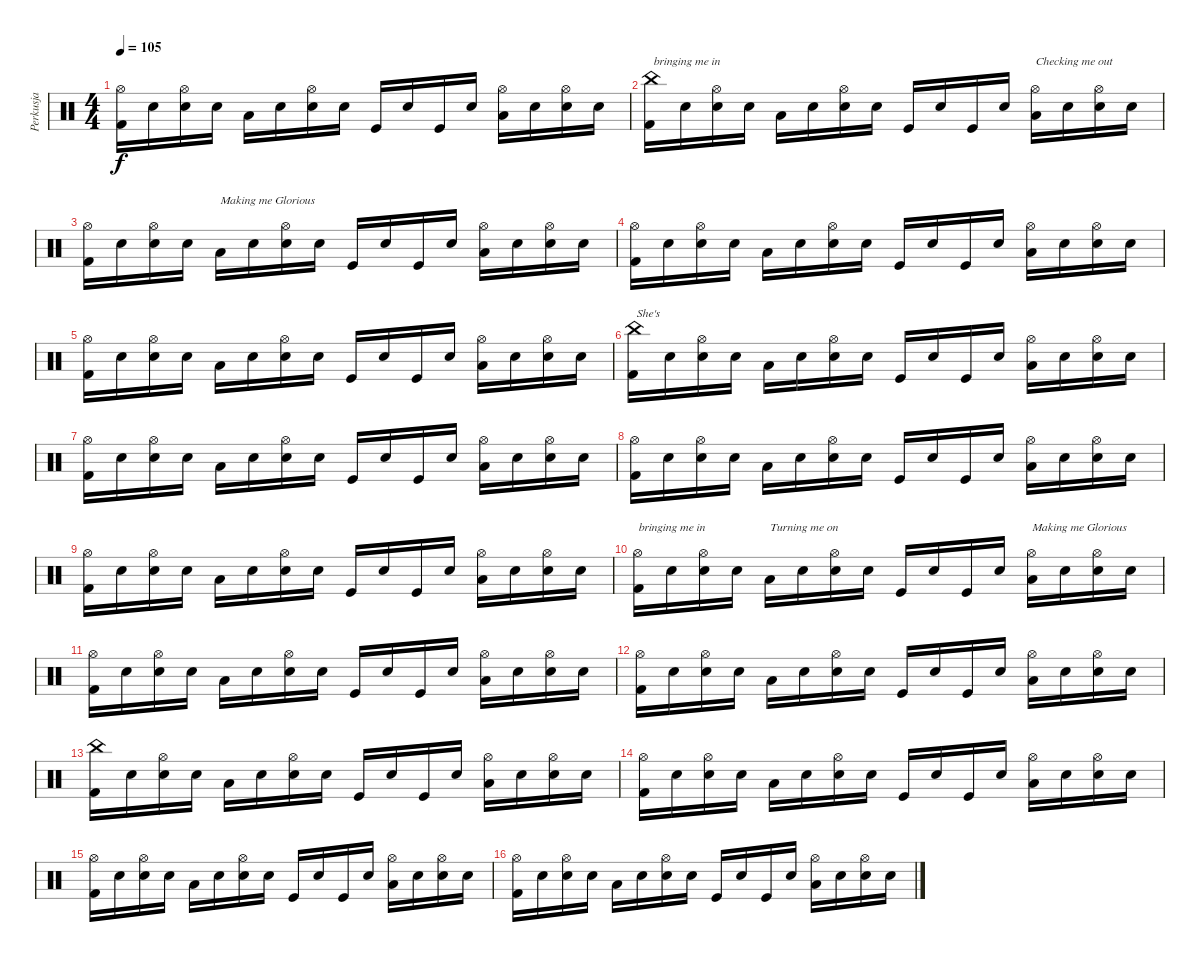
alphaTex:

\track ("Perkusja" "Perkusja") {instrument percussion}
\staff {score}
\articulation defaults
\ts (4 4)
\tempo 105
\clef neutral
\ks c
("Hi-Hat (open)" "Kick (hit) 2").16{dy f} "Snare (hit)".16 ("Hi-Hat (open)" "Snare (hit)").16 "Snare (hit)".16 "Low Tom (hit)".16 "Snare (hit)".16 ("Hi-Hat (open)" "Snare (hit)").16 "Snare (hit)".16 "Kick (hit)".16 "Snare (hit)".16 "Kick (hit)".16 "Snare (hit)".16 ("Hi-Hat (open)" "Low Tom (hit)").16 "Snare (hit)".16 ("Hi-Hat (open)" "Snare (hit)").16 "Snare (hit)".16 |
("China (hit)" "Kick (hit) 2").16{txt "bringing me in"} "Snare (hit)".16 ("Hi-Hat (open)" "Snare (hit)").16 "Snare (hit)".16 "Low Tom (hit)".16 "Snare (hit)".16 ("Hi-Hat (open)" "Snare (hit)").16 "Snare (hit)".16 "Kick (hit)".16 "Snare (hit)".16 "Kick (hit)".16 "Snare (hit)".16 ("Hi-Hat (open)" "Low Tom (hit)").16{txt "Checking me out "} "Snare (hit)".16 ("Hi-Hat (open)" "Snare (hit)").16 "Snare (hit)".16 |
("Hi-Hat (open)" "Kick (hit) 2").16 "Snare (hit)".16 ("Hi-Hat (open)" "Snare (hit)").16 "Snare (hit)".16 "Low Tom (hit)".16{txt "Making me Glorious "} "Snare (hit)".16 ("Hi-Hat (open)" "Snare (hit)").16 "Snare (hit)".16 "Kick (hit)".16 "Snare (hit)".16 "Kick (hit)".16 "Snare (hit)".16 ("Hi-Hat (open)" "Low Tom (hit)").16 "Snare (hit)".16 ("Hi-Hat (open)" "Snare (hit)").16 "Snare (hit)".16 |
("Hi-Hat (open)" "Kick (hit) 2").16 "Snare (hit)".16 ("Hi-Hat (open)" "Snare (hit)").16 "Snare (hit)".16 "Low Tom (hit)".16 "Snare (hit)".16 ("Hi-Hat (open)" "Snare (hit)").16 "Snare (hit)".16 "Kick (hit)".16 "Snare (hit)".16 "Kick (hit)".16 "Snare (hit)".16 ("Hi-Hat (open)" "Low Tom (hit)").16 "Snare (hit)".16 ("Hi-Hat (open)" "Snare (hit)").16 "Snare (hit)".16 |
("Hi-Hat (open)" "Kick (hit) 2").16 "Snare (hit)".16 ("Hi-Hat (open)" "Snare (hit)").16 "Snare (hit)".16 "Low Tom (hit)".16 "Snare (hit)".16 ("Hi-Hat (open)" "Snare (hit)").16 "Snare (hit)".16 "Kick (hit)".16 "Snare (hit)".16 "Kick (hit)".16 "Snare (hit)".16 ("Hi-Hat (open)" "Low Tom (hit)").16 "Snare (hit)".16 ("Hi-Hat (open)" "Snare (hit)").16 "Snare (hit)".16 |
("China (hit)" "Kick (hit) 2").16{txt "She's"} "Snare (hit)".16 ("Hi-Hat (open)" "Snare (hit)").16 "Snare (hit)".16 "Low Tom (hit)".16 "Snare (hit)".16 ("Hi-Hat (open)" "Snare (hit)").16 "Snare (hit)".16 "Kick (hit)".16 "Snare (hit)".16 "Kick (hit)".16 "Snare (hit)".16 ("Hi-Hat (open)" "Low Tom (hit)").16 "Snare (hit)".16 ("Hi-Hat (open)" "Snare (hit)").16 "Snare (hit)".16 |
("Hi-Hat (open)" "Kick (hit) 2").16 "Snare (hit)".16 ("Hi-Hat (open)" "Snare (hit)").16 "Snare (hit)".16 "Low Tom (hit)".16 "Snare (hit)".16 ("Hi-Hat (open)" "Snare (hit)").16 "Snare (hit)".16 "Kick (hit)".16 "Snare (hit)".16 "Kick (hit)".16 "Snare (hit)".16 ("Hi-Hat (open)" "Low Tom (hit)").16 "Snare (hit)".16 ("Hi-Hat (open)" "Snare (hit)").16 "Snare (hit)".16 |
("Hi-Hat (open)" "Kick (hit) 2").16 "Snare (hit)".16 ("Hi-Hat (open)" "Snare (hit)").16 "Snare (hit)".16 "Low Tom (hit)".16 "Snare (hit)".16 ("Hi-Hat (open)" "Snare (hit)").16 "Snare (hit)".16 "Kick (hit)".16 "Snare (hit)".16 "Kick (hit)".16 "Snare (hit)".16 ("Hi-Hat (open)" "Low Tom (hit)").16 "Snare (hit)".16 ("Hi-Hat (open)" "Snare (hit)").16 "Snare (hit)".16 |
("Hi-Hat (open)" "Kick (hit) 2").16 "Snare (hit)".16 ("Hi-Hat (open)" "Snare (hit)").16 "Snare (hit)".16 "Low Tom (hit)".16 "Snare (hit)".16 ("Hi-Hat (open)" "Snare (hit)").16 "Snare (hit)".16 "Kick (hit)".16 "Snare (hit)".16 "Kick (hit)".16 "Snare (hit)".16 ("Hi-Hat (open)" "Low Tom (hit)").16 "Snare (hit)".16 ("Hi-Hat (open)" "Snare (hit)").16 "Snare (hit)".16 |
("Hi-Hat (open)" "Kick (hit) 2").16{txt "bringing me in "} "Snare (hit)".16 ("Hi-Hat (open)" "Snare (hit)").16 "Snare (hit)".16 "Low Tom (hit)".16{txt "Turning me on "} "Snare (hit)".16 ("Hi-Hat (open)" "Snare (hit)").16 "Snare (hit)".16 "Kick (hit)".16 "Snare (hit)".16 "Kick (hit)".16 "Snare (hit)".16 ("Hi-Hat (open)" "Low Tom (hit)").16{txt "Making me Glorious"} "Snare (hit)".16 ("Hi-Hat (open)" "Snare (hit)").16 "Snare (hit)".16 |
("Hi-Hat (open)" "Kick (hit) 2").16 "Snare (hit)".16 ("Hi-Hat (open)" "Snare (hit)").16 "Snare (hit)".16 "Low Tom (hit)".16 "Snare (hit)".16 ("Hi-Hat (open)" "Snare (hit)").16 "Snare (hit)".16 "Kick (hit)".16 "Snare (hit)".16 "Kick (hit)".16 "Snare (hit)".16 ("Hi-Hat (open)" "Low Tom (hit)").16 "Snare (hit)".16 ("Hi-Hat (open)" "Snare (hit)").16 "Snare (hit)".16 |
("Hi-Hat (open)" "Kick (hit) 2").16 "Snare (hit)".16 ("Hi-Hat (open)" "Snare (hit)").16 "Snare (hit)".16 "Low Tom (hit)".16 "Snare (hit)".16 ("Hi-Hat (open)" "Snare (hit)").16 "Snare (hit)".16 "Kick (hit)".16 "Snare (hit)".16 "Kick (hit)".16 "Snare (hit)".16 ("Hi-Hat (open)" "Low Tom (hit)").16 "Snare (hit)".16 ("Hi-Hat (open)" "Snare (hit)").16 "Snare (hit)".16 |
("China (hit)" "Kick (hit) 2").16 "Snare (hit)".16 ("Hi-Hat (open)" "Snare (hit)").16 "Snare (hit)".16 "Low Tom (hit)".16 "Snare (hit)".16 ("Hi-Hat (open)" "Snare (hit)").16 "Snare (hit)".16 "Kick (hit)".16 "Snare (hit)".16 "Kick (hit)".16 "Snare (hit)".16 ("Hi-Hat (open)" "Low Tom (hit)").16 "Snare (hit)".16 ("Hi-Hat (open)" "Snare (hit)").16 "Snare (hit)".16 |
("Hi-Hat (open)" "Kick (hit) 2").16 "Snare (hit)".16 ("Hi-Hat (open)" "Snare (hit)").16 "Snare (hit)".16 "Low Tom (hit)".16 "Snare (hit)".16 ("Hi-Hat (open)" "Snare (hit)").16 "Snare (hit)".16 "Kick (hit)".16 "Snare (hit)".16 "Kick (hit)".16 "Snare (hit)".16 ("Hi-Hat (open)" "Low Tom (hit)").16 "Snare (hit)".16 ("Hi-Hat (open)" "Snare (hit)").16 "Snare (hit)".16 |
("Hi-Hat (open)" "Kick (hit) 2").16 "Snare (hit)".16 ("Hi-Hat (open)" "Snare (hit)").16 "Snare (hit)".16 "Low Tom (hit)".16 "Snare (hit)".16 ("Hi-Hat (open)" "Snare (hit)").16 "Snare (hit)".16 "Kick (hit)".16 "Snare (hit)".16 "Kick (hit)".16 "Snare (hit)".16 ("Hi-Hat (open)" "Low Tom (hit)").16 "Snare (hit)".16 ("Hi-Hat (open)" "Snare (hit)").16 "Snare (hit)".16 |
("Hi-Hat (open)" "Kick (hit) 2").16 "Snare (hit)".16 ("Hi-Hat (open)" "Snare (hit)").16 "Snare (hit)".16 "Low Tom (hit)".16 "Snare (hit)".16 ("Hi-Hat (open)" "Snare (hit)").16 "Snare (hit)".16 "Kick (hit)".16 "Snare (hit)".16 "Kick (hit)".16 "Snare (hit)".16 ("Hi-Hat (open)" "Low Tom (hit)").16 "Snare (hit)".16 ("Hi-Hat (open)" "Snare (hit)").16 "Snare (hit)".16
